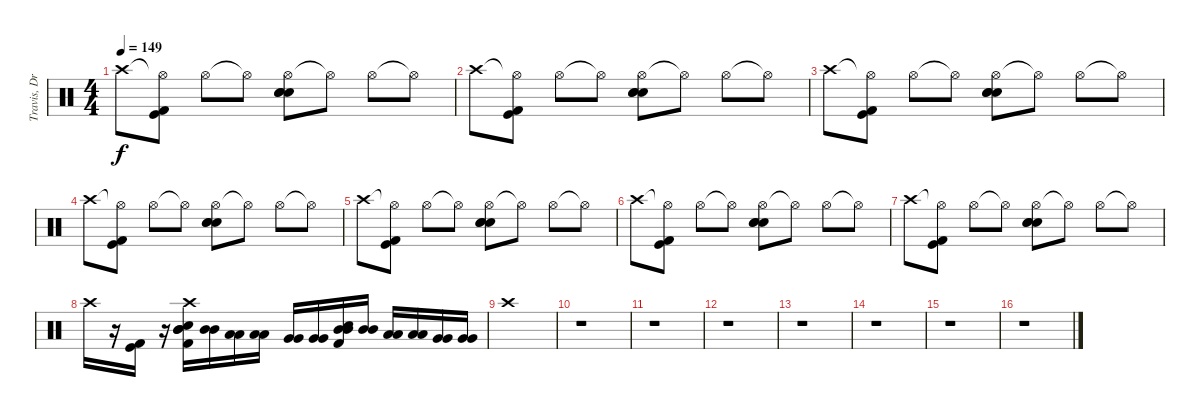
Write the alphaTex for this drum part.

\track ("Travis, Drums {Tabbed by Peter B.}" "Travis, Dr") {instrument percussion}
\staff {score}
\articulation defaults
\ts (4 4)
\tempo 149
\clef neutral
\ks c "Crash high (hit)".8{dy f}
("Hi-Hat (open)"{t} "Kick (hit)" "Kick (hit) 2").8 "Hi-Hat (open)".8 "Hi-Hat (open)"{t}.8 ("Hi-Hat (open)" "Electric Snare (hit)" "Electric Snare (hit)" "Snare (hit) 2").8 "Hi-Hat (open)"{t}.8 "Hi-Hat (open)".8 "Hi-Hat (open)"{t}.8 |
"Crash high (hit)".8 ("Hi-Hat (open)"{t} "Kick (hit)" "Kick (hit) 2").8 "Hi-Hat (open)".8 "Hi-Hat (open)"{t}.8 ("Hi-Hat (open)" "Electric Snare (hit)" "Electric Snare (hit)" "Snare (hit) 2").8 "Hi-Hat (open)"{t}.8 "Hi-Hat (open)".8 "Hi-Hat (open)"{t}.8 |
"Crash high (hit)".8 ("Hi-Hat (open)"{t} "Kick (hit)" "Kick (hit) 2").8 "Hi-Hat (open)".8 "Hi-Hat (open)"{t}.8 ("Hi-Hat (open)" "Electric Snare (hit)" "Electric Snare (hit)" "Snare (hit) 2").8 "Hi-Hat (open)"{t}.8 "Hi-Hat (open)".8 "Hi-Hat (open)"{t}.8 |
"Crash high (hit)".8 ("Hi-Hat (open)"{t} "Kick (hit)" "Kick (hit) 2").8 "Hi-Hat (open)".8 "Hi-Hat (open)"{t}.8 ("Hi-Hat (open)" "Electric Snare (hit)" "Electric Snare (hit)" "Snare (hit) 2").8 "Hi-Hat (open)"{t}.8 "Hi-Hat (open)".8 "Hi-Hat (open)"{t}.8 |
"Crash high (hit)".8 ("Hi-Hat (open)"{t} "Kick (hit)" "Kick (hit) 2").8 "Hi-Hat (open)".8 "Hi-Hat (open)"{t}.8 ("Hi-Hat (open)" "Electric Snare (hit)" "Electric Snare (hit)" "Snare (hit) 2").8 "Hi-Hat (open)"{t}.8 "Hi-Hat (open)".8 "Hi-Hat (open)"{t}.8 |
"Crash high (hit)".8 ("Hi-Hat (open)"{t} "Kick (hit)" "Kick (hit) 2").8 "Hi-Hat (open)".8 "Hi-Hat (open)"{t}.8 ("Hi-Hat (open)" "Electric Snare (hit)" "Electric Snare (hit)" "Snare (hit) 2").8 "Hi-Hat (open)"{t}.8 "Hi-Hat (open)".8 "Hi-Hat (open)"{t}.8 |
"Crash high (hit)".8 ("Hi-Hat (open)"{t} "Kick (hit)" "Kick (hit) 2").8 "Hi-Hat (open)".8 "Hi-Hat (open)"{t}.8 ("Hi-Hat (open)" "Electric Snare (hit)" "Electric Snare (hit)" "Snare (hit) 2").8 "Hi-Hat (open)"{t}.8 "Hi-Hat (open)".8 "Hi-Hat (open)"{t}.8 |
"Crash high (hit)".16 r.16 ("Kick (hit)" "Kick (hit) 2").16 r.16 ("Crash high (hit)" "Mid Tom (hit)" "Mid Tom (hit)" "Electric Snare (hit)" "Kick (hit) 2").16 ("Mid Tom (hit)" "Mid Tom (hit)").16 ("Low Tom (hit)" "Low Tom (hit)").16 ("Low Tom (hit)" "Low Tom (hit)").16 ("Very Low Tom (hit)" "Very Low Tom (hit)").16 ("Very Low Tom (hit)" "Very Low Tom (hit)").16 ("Mid Tom (hit)" "Mid Tom (hit)" "Electric Snare (hit)" "Kick (hit) 2").16 ("Mid Tom (hit)" "Mid Tom (hit)").16 ("Low Tom (hit)" "Low Tom (hit)").16 ("Low Tom (hit)" "Low Tom (hit)").16 ("Very Low Tom (hit)" "Very Low Tom (hit)").16 ("Very Low Tom (hit)" "Very Low Tom (hit)").16 |
"Crash high (hit)".1 |
r.1 |
r.1 |
r.1 |
r.1 |
r.1 |
r.1 |
r.1
